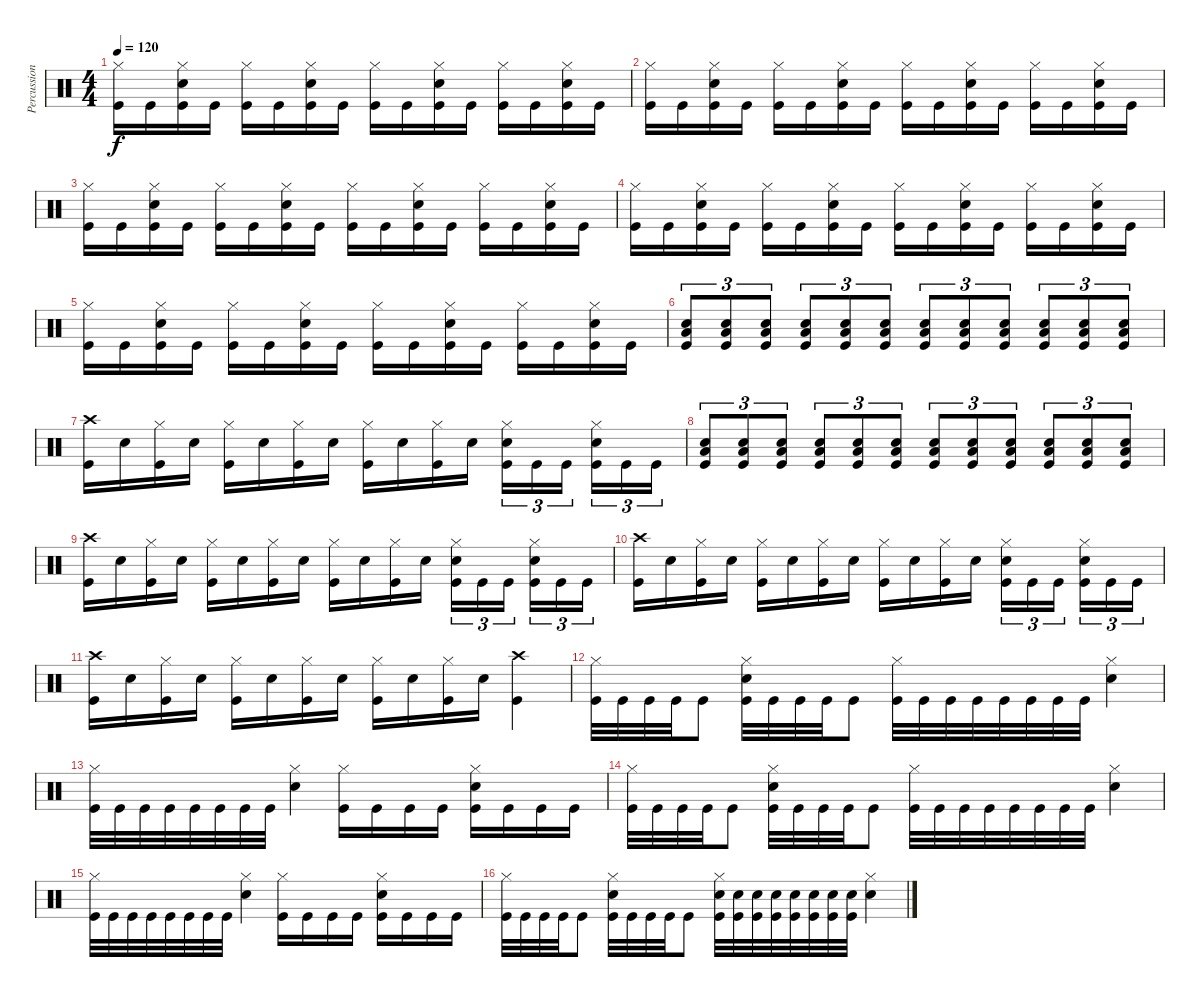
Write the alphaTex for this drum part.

\track ("Percussion" "Percussion") {instrument percussion}
\staff {score}
\articulation defaults
\ts (4 4)
\tempo 120
\clef neutral
\ks c
("Hi-Hat (closed)" "Kick (hit)").16{dy f} "Kick (hit)".16 ("Hi-Hat (closed)" "Snare (hit) 2" "Kick (hit)").16 "Kick (hit)".16 ("Hi-Hat (closed)" "Kick (hit)").16 "Kick (hit)".16 ("Hi-Hat (closed)" "Snare (hit) 2" "Kick (hit)").16 "Kick (hit)".16 ("Hi-Hat (closed)" "Kick (hit)").16 "Kick (hit)".16 ("Hi-Hat (closed)" "Snare (hit) 2" "Kick (hit)").16 "Kick (hit)".16 ("Hi-Hat (closed)" "Kick (hit)").16 "Kick (hit)".16 ("Hi-Hat (closed)" "Snare (hit) 2" "Kick (hit)").16 "Kick (hit)".16 |
("Hi-Hat (closed)" "Kick (hit)").16 "Kick (hit)".16 ("Hi-Hat (closed)" "Snare (hit) 2" "Kick (hit)").16 "Kick (hit)".16 ("Hi-Hat (closed)" "Kick (hit)").16 "Kick (hit)".16 ("Hi-Hat (closed)" "Snare (hit) 2" "Kick (hit)").16 "Kick (hit)".16 ("Hi-Hat (closed)" "Kick (hit)").16 "Kick (hit)".16 ("Hi-Hat (closed)" "Snare (hit) 2" "Kick (hit)").16 "Kick (hit)".16 ("Hi-Hat (closed)" "Kick (hit)").16 "Kick (hit)".16 ("Hi-Hat (closed)" "Snare (hit) 2" "Kick (hit)").16 "Kick (hit)".16 |
("Hi-Hat (closed)" "Kick (hit)").16 "Kick (hit)".16 ("Hi-Hat (closed)" "Snare (hit) 2" "Kick (hit)").16 "Kick (hit)".16 ("Hi-Hat (closed)" "Kick (hit)").16 "Kick (hit)".16 ("Hi-Hat (closed)" "Snare (hit) 2" "Kick (hit)").16 "Kick (hit)".16 ("Hi-Hat (closed)" "Kick (hit)").16 "Kick (hit)".16 ("Hi-Hat (closed)" "Snare (hit) 2" "Kick (hit)").16 "Kick (hit)".16 ("Hi-Hat (closed)" "Kick (hit)").16 "Kick (hit)".16 ("Hi-Hat (closed)" "Snare (hit) 2" "Kick (hit)").16 "Kick (hit)".16 |
("Hi-Hat (closed)" "Kick (hit)").16 "Kick (hit)".16 ("Hi-Hat (closed)" "Snare (hit) 2" "Kick (hit)").16 "Kick (hit)".16 ("Hi-Hat (closed)" "Kick (hit)").16 "Kick (hit)".16 ("Hi-Hat (closed)" "Snare (hit) 2" "Kick (hit)").16 "Kick (hit)".16 ("Hi-Hat (closed)" "Kick (hit)").16 "Kick (hit)".16 ("Hi-Hat (closed)" "Snare (hit) 2" "Kick (hit)").16 "Kick (hit)".16 ("Hi-Hat (closed)" "Kick (hit)").16 "Kick (hit)".16 ("Hi-Hat (closed)" "Snare (hit) 2" "Kick (hit)").16 "Kick (hit)".16 |
("Hi-Hat (closed)" "Kick (hit)").16 "Kick (hit)".16 ("Hi-Hat (closed)" "Snare (hit) 2" "Kick (hit)").16 "Kick (hit)".16 ("Hi-Hat (closed)" "Kick (hit)").16 "Kick (hit)".16 ("Hi-Hat (closed)" "Snare (hit) 2" "Kick (hit)").16 "Kick (hit)".16 ("Hi-Hat (closed)" "Kick (hit)").16 "Kick (hit)".16 ("Hi-Hat (closed)" "Snare (hit) 2" "Kick (hit)").16 "Kick (hit)".16 ("Hi-Hat (closed)" "Kick (hit)").16 "Kick (hit)".16 ("Hi-Hat (closed)" "Snare (hit) 2" "Kick (hit)").16 "Kick (hit)".16 |
("Low Floor Tom (hit)" "Snare (hit) 2" "Kick (hit)").8{tu (3 2)} ("Low Floor Tom (hit)" "Snare (hit) 2" "Kick (hit)").8{tu (3 2)} ("Low Floor Tom (hit)" "Snare (hit) 2" "Kick (hit)").8{tu (3 2)} ("Low Floor Tom (hit)" "Snare (hit) 2" "Kick (hit)").8{tu (3 2)} ("Low Floor Tom (hit)" "Snare (hit) 2" "Kick (hit)").8{tu (3 2)} ("Low Floor Tom (hit)" "Snare (hit) 2" "Kick (hit)").8{tu (3 2)} ("Low Floor Tom (hit)" "Snare (hit) 2" "Kick (hit)").8{tu (3 2)} ("Low Floor Tom (hit)" "Snare (hit) 2" "Kick (hit)").8{tu (3 2)} ("Low Floor Tom (hit)" "Snare (hit) 2" "Kick (hit)").8{tu (3 2)} ("Low Floor Tom (hit)" "Snare (hit) 2" "Kick (hit)").8{tu (3 2)} ("Low Floor Tom (hit)" "Snare (hit) 2" "Kick (hit)").8{tu (3 2)} ("Low Floor Tom (hit)" "Snare (hit) 2" "Kick (hit)").8{tu (3 2)} |
("Crash high (hit)" "Kick (hit)").16 "Snare (hit) 2".16 ("Hi-Hat (closed)" "Kick (hit)").16 "Snare (hit) 2".16 ("Hi-Hat (closed)" "Kick (hit)").16 "Snare (hit) 2".16 ("Hi-Hat (closed)" "Kick (hit)").16 "Snare (hit) 2".16 ("Hi-Hat (closed)" "Kick (hit)").16 "Snare (hit) 2".16 ("Hi-Hat (closed)" "Kick (hit)").16 "Snare (hit) 2".16 ("Hi-Hat (closed)" "Snare (hit) 2" "Kick (hit)").16{tu (3 2)} "Kick (hit)".16{tu (3 2)} "Kick (hit)".16{tu (3 2) beam splitsecondary} ("Hi-Hat (closed)" "Snare (hit) 2" "Kick (hit)").16{tu (3 2)} "Kick (hit)".16{tu (3 2)} "Kick (hit)".16{tu (3 2)} |
("Low Floor Tom (hit)" "Snare (hit) 2" "Kick (hit)").8{tu (3 2)} ("Low Floor Tom (hit)" "Snare (hit) 2" "Kick (hit)").8{tu (3 2)} ("Low Floor Tom (hit)" "Snare (hit) 2" "Kick (hit)").8{tu (3 2)} ("Low Floor Tom (hit)" "Snare (hit) 2" "Kick (hit)").8{tu (3 2)} ("Low Floor Tom (hit)" "Snare (hit) 2" "Kick (hit)").8{tu (3 2)} ("Low Floor Tom (hit)" "Snare (hit) 2" "Kick (hit)").8{tu (3 2)} ("Low Floor Tom (hit)" "Snare (hit) 2" "Kick (hit)").8{tu (3 2)} ("Low Floor Tom (hit)" "Snare (hit) 2" "Kick (hit)").8{tu (3 2)} ("Low Floor Tom (hit)" "Snare (hit) 2" "Kick (hit)").8{tu (3 2)} ("Low Floor Tom (hit)" "Snare (hit) 2" "Kick (hit)").8{tu (3 2)} ("Low Floor Tom (hit)" "Snare (hit) 2" "Kick (hit)").8{tu (3 2)} ("Low Floor Tom (hit)" "Snare (hit) 2" "Kick (hit)").8{tu (3 2)} |
("Crash high (hit)" "Kick (hit)").16 "Snare (hit) 2".16 ("Hi-Hat (closed)" "Kick (hit)").16 "Snare (hit) 2".16 ("Hi-Hat (closed)" "Kick (hit)").16 "Snare (hit) 2".16 ("Hi-Hat (closed)" "Kick (hit)").16 "Snare (hit) 2".16 ("Hi-Hat (closed)" "Kick (hit)").16 "Snare (hit) 2".16 ("Hi-Hat (closed)" "Kick (hit)").16 "Snare (hit) 2".16 ("Hi-Hat (closed)" "Snare (hit) 2" "Kick (hit)").16{tu (3 2)} "Kick (hit)".16{tu (3 2)} "Kick (hit)".16{tu (3 2) beam splitsecondary} ("Hi-Hat (closed)" "Snare (hit) 2" "Kick (hit)").16{tu (3 2)} "Kick (hit)".16{tu (3 2)} "Kick (hit)".16{tu (3 2)} |
("Crash high (hit)" "Kick (hit)").16 "Snare (hit) 2".16 ("Hi-Hat (closed)" "Kick (hit)").16 "Snare (hit) 2".16 ("Hi-Hat (closed)" "Kick (hit)").16 "Snare (hit) 2".16 ("Hi-Hat (closed)" "Kick (hit)").16 "Snare (hit) 2".16 ("Hi-Hat (closed)" "Kick (hit)").16 "Snare (hit) 2".16 ("Hi-Hat (closed)" "Kick (hit)").16 "Snare (hit) 2".16 ("Hi-Hat (closed)" "Snare (hit) 2" "Kick (hit)").16{tu (3 2)} "Kick (hit)".16{tu (3 2)} "Kick (hit)".16{tu (3 2) beam splitsecondary} ("Hi-Hat (closed)" "Snare (hit) 2" "Kick (hit)").16{tu (3 2)} "Kick (hit)".16{tu (3 2)} "Kick (hit)".16{tu (3 2)} |
("Crash high (hit)" "Kick (hit)").16 "Snare (hit) 2".16 ("Hi-Hat (closed)" "Kick (hit)").16 "Snare (hit) 2".16 ("Hi-Hat (closed)" "Kick (hit)").16 "Snare (hit) 2".16 ("Hi-Hat (closed)" "Kick (hit)").16 "Snare (hit) 2".16 ("Hi-Hat (closed)" "Kick (hit)").16 "Snare (hit) 2".16 ("Hi-Hat (closed)" "Kick (hit)").16 "Snare (hit) 2".16 ("Crash high (hit)" "Kick (hit)").4 |
("Hi-Hat (closed)" "Kick (hit)").32 "Kick (hit)".32 "Kick (hit)".32 "Kick (hit)".32 "Kick (hit)".8 ("Hi-Hat (closed)" "Snare (hit) 2" "Kick (hit)").32 "Kick (hit)".32 "Kick (hit)".32 "Kick (hit)".32 "Kick (hit)".8 ("Hi-Hat (closed)" "Kick (hit)").32 "Kick (hit)".32 "Kick (hit)".32 "Kick (hit)".32 "Kick (hit)".32 "Kick (hit)".32 "Kick (hit)".32 "Kick (hit)".32 ("Hi-Hat (closed)" "Snare (hit) 2").4 |
("Hi-Hat (closed)" "Kick (hit)").32 "Kick (hit)".32 "Kick (hit)".32 "Kick (hit)".32 "Kick (hit)".32 "Kick (hit)".32 "Kick (hit)".32 "Kick (hit)".32 ("Hi-Hat (closed)" "Snare (hit) 2").4 ("Hi-Hat (closed)" "Kick (hit)").16 "Kick (hit)".16 "Kick (hit)".16 "Kick (hit)".16 ("Hi-Hat (closed)" "Snare (hit) 2" "Kick (hit)").16 "Kick (hit)".16 "Kick (hit)".16 "Kick (hit)".16 |
("Hi-Hat (closed)" "Kick (hit)").32 "Kick (hit)".32 "Kick (hit)".32 "Kick (hit)".32 "Kick (hit)".8 ("Hi-Hat (closed)" "Snare (hit) 2" "Kick (hit)").32 "Kick (hit)".32 "Kick (hit)".32 "Kick (hit)".32 "Kick (hit)".8 ("Hi-Hat (closed)" "Kick (hit)").32 "Kick (hit)".32 "Kick (hit)".32 "Kick (hit)".32 "Kick (hit)".32 "Kick (hit)".32 "Kick (hit)".32 "Kick (hit)".32 ("Hi-Hat (closed)" "Snare (hit) 2").4 |
("Hi-Hat (closed)" "Kick (hit)").32 "Kick (hit)".32 "Kick (hit)".32 "Kick (hit)".32 "Kick (hit)".32 "Kick (hit)".32 "Kick (hit)".32 "Kick (hit)".32 ("Hi-Hat (closed)" "Snare (hit) 2").4 ("Hi-Hat (closed)" "Kick (hit)").16 "Kick (hit)".16 "Kick (hit)".16 "Kick (hit)".16 ("Hi-Hat (closed)" "Snare (hit) 2" "Kick (hit)").16 "Kick (hit)".16 "Kick (hit)".16 "Kick (hit)".16 |
("Hi-Hat (closed)" "Kick (hit)").32 "Kick (hit)".32 "Kick (hit)".32 "Kick (hit)".32 "Kick (hit)".8 ("Hi-Hat (closed)" "Snare (hit) 2" "Kick (hit)").32 "Kick (hit)".32 "Kick (hit)".32 "Kick (hit)".32 "Kick (hit)".8 ("Hi-Hat (closed)" "Snare (hit) 2" "Kick (hit)").32 ("Snare (hit) 2" "Kick (hit)").32 ("Snare (hit) 2" "Kick (hit)").32 ("Snare (hit) 2" "Kick (hit)").32 ("Snare (hit) 2" "Kick (hit)").32 ("Snare (hit) 2" "Kick (hit)").32 ("Snare (hit) 2" "Kick (hit)").32 ("Snare (hit) 2" "Kick (hit)").32 ("Hi-Hat (closed)" "Snare (hit) 2").4
